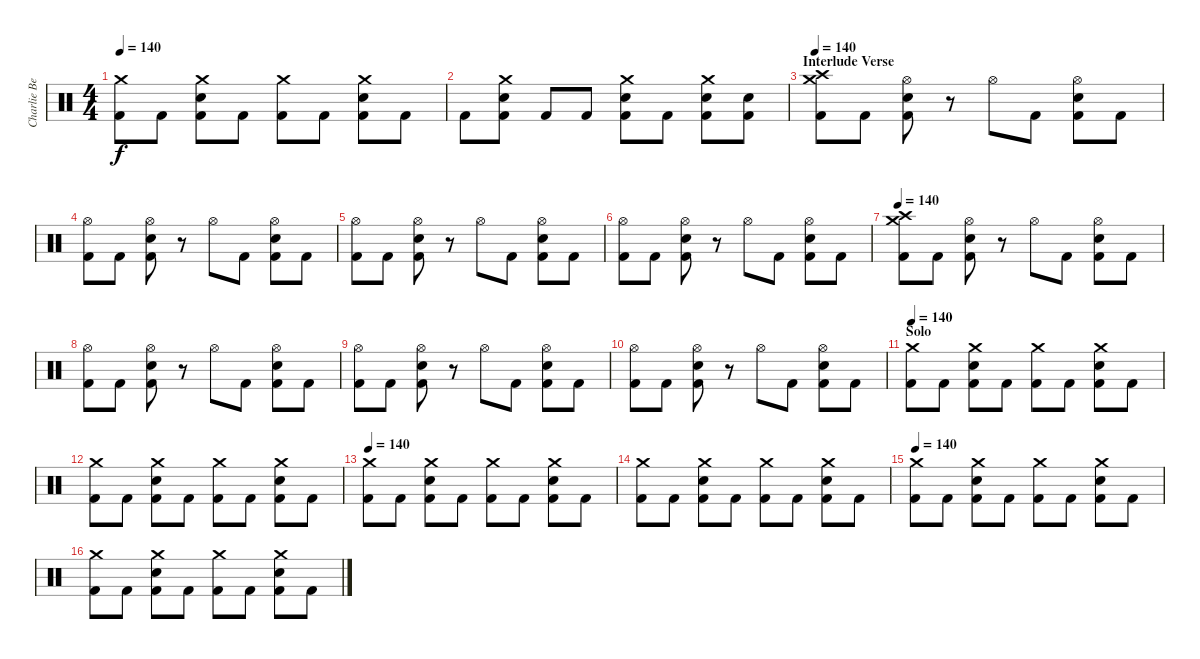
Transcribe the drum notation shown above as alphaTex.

\track ("Charlie Benante" "Charlie Be") {instrument percussion}
\staff {score}
\articulation defaults
\ts (4 4)
\tempo 140
\clef neutral
\ks c
("Crash medium (hit)" "Kick (hit) 2").8{dy f} "Kick (hit) 2".8 ("Crash medium (hit)" "Snare (hit) 2" "Kick (hit) 2").8 "Kick (hit) 2".8 ("Crash medium (hit)" "Kick (hit) 2").8 "Kick (hit) 2".8 ("Crash medium (hit)" "Snare (hit) 2" "Kick (hit) 2").8 "Kick (hit) 2".8 |
"Kick (hit) 2".8 ("Crash medium (hit)" "Snare (hit) 2" "Kick (hit) 2").8 "Kick (hit) 2".8 "Kick (hit) 2".8 ("Crash medium (hit)" "Snare (hit) 2" "Kick (hit) 2").8 "Kick (hit) 2".8 ("Crash medium (hit)" "Snare (hit) 2" "Kick (hit) 2").8 ("Snare (hit) 2" "Kick (hit) 2").8 |
\section ("" "Interlude Verse")
\tempo 140
("Crash high (hit)" "Crash medium (hit)" "Kick (hit) 2").8 "Kick (hit) 2".8 ("Hi-Hat (open)" "Snare (hit) 2" "Kick (hit) 2").8 r.8 "Hi-Hat (open)".8 "Kick (hit) 2".8 ("Hi-Hat (open)" "Snare (hit) 2" "Kick (hit) 2").8 "Kick (hit) 2".8 |
("Hi-Hat (open)" "Kick (hit) 2").8 "Kick (hit) 2".8 ("Hi-Hat (open)" "Snare (hit) 2" "Kick (hit) 2").8 r.8 "Hi-Hat (open)".8 "Kick (hit) 2".8 ("Hi-Hat (open)" "Snare (hit) 2" "Kick (hit) 2").8 "Kick (hit) 2".8 |
("Hi-Hat (open)" "Kick (hit) 2").8 "Kick (hit) 2".8 ("Hi-Hat (open)" "Snare (hit) 2" "Kick (hit) 2").8 r.8 "Hi-Hat (open)".8 "Kick (hit) 2".8 ("Hi-Hat (open)" "Snare (hit) 2" "Kick (hit) 2").8 "Kick (hit) 2".8 |
("Hi-Hat (open)" "Kick (hit) 2").8 "Kick (hit) 2".8 ("Hi-Hat (open)" "Snare (hit) 2" "Kick (hit) 2").8 r.8 "Hi-Hat (open)".8 "Kick (hit) 2".8 ("Hi-Hat (open)" "Snare (hit) 2" "Kick (hit) 2").8 "Kick (hit) 2".8 |
\tempo 140
("Crash high (hit)" "Crash medium (hit)" "Kick (hit) 2").8 "Kick (hit) 2".8 ("Hi-Hat (open)" "Snare (hit) 2" "Kick (hit) 2").8 r.8 "Hi-Hat (open)".8 "Kick (hit) 2".8 ("Hi-Hat (open)" "Snare (hit) 2" "Kick (hit) 2").8 "Kick (hit) 2".8 |
("Hi-Hat (open)" "Kick (hit) 2").8 "Kick (hit) 2".8 ("Hi-Hat (open)" "Snare (hit) 2" "Kick (hit) 2").8 r.8 "Hi-Hat (open)".8 "Kick (hit) 2".8 ("Hi-Hat (open)" "Snare (hit) 2" "Kick (hit) 2").8 "Kick (hit) 2".8 |
("Hi-Hat (open)" "Kick (hit) 2").8 "Kick (hit) 2".8 ("Hi-Hat (open)" "Snare (hit) 2" "Kick (hit) 2").8 r.8 "Hi-Hat (open)".8 "Kick (hit) 2".8 ("Hi-Hat (open)" "Snare (hit) 2" "Kick (hit) 2").8 "Kick (hit) 2".8 |
("Hi-Hat (open)" "Kick (hit) 2").8 "Kick (hit) 2".8 ("Hi-Hat (open)" "Snare (hit) 2" "Kick (hit) 2").8 r.8 "Hi-Hat (open)".8 "Kick (hit) 2".8 ("Hi-Hat (open)" "Snare (hit) 2" "Kick (hit) 2").8 "Kick (hit) 2".8 |
\section ("" "Solo")
\tempo 140
("Crash medium (hit)" "Kick (hit) 2").8 "Kick (hit) 2".8 ("Crash medium (hit)" "Snare (hit) 2" "Kick (hit) 2").8 "Kick (hit) 2".8 ("Crash medium (hit)" "Kick (hit) 2").8 "Kick (hit) 2".8 ("Crash medium (hit)" "Snare (hit) 2" "Kick (hit) 2").8 "Kick (hit) 2".8 |
("Crash medium (hit)" "Kick (hit) 2").8 "Kick (hit) 2".8 ("Crash medium (hit)" "Snare (hit) 2" "Kick (hit) 2").8 "Kick (hit) 2".8 ("Crash medium (hit)" "Kick (hit) 2").8 "Kick (hit) 2".8 ("Crash medium (hit)" "Snare (hit) 2" "Kick (hit) 2").8 "Kick (hit) 2".8 |
\tempo 140
("Crash medium (hit)" "Kick (hit) 2").8 "Kick (hit) 2".8 ("Crash medium (hit)" "Snare (hit) 2" "Kick (hit) 2").8 "Kick (hit) 2".8 ("Crash medium (hit)" "Kick (hit) 2").8 "Kick (hit) 2".8 ("Crash medium (hit)" "Snare (hit) 2" "Kick (hit) 2").8 "Kick (hit) 2".8 |
("Crash medium (hit)" "Kick (hit) 2").8 "Kick (hit) 2".8 ("Crash medium (hit)" "Snare (hit) 2" "Kick (hit) 2").8 "Kick (hit) 2".8 ("Crash medium (hit)" "Kick (hit) 2").8 "Kick (hit) 2".8 ("Crash medium (hit)" "Snare (hit) 2" "Kick (hit) 2").8 "Kick (hit) 2".8 |
\tempo 140
("Crash medium (hit)" "Kick (hit) 2").8 "Kick (hit) 2".8 ("Crash medium (hit)" "Snare (hit) 2" "Kick (hit) 2").8 "Kick (hit) 2".8 ("Crash medium (hit)" "Kick (hit) 2").8 "Kick (hit) 2".8 ("Crash medium (hit)" "Snare (hit) 2" "Kick (hit) 2").8 "Kick (hit) 2".8 |
("Crash medium (hit)" "Kick (hit) 2").8 "Kick (hit) 2".8 ("Crash medium (hit)" "Snare (hit) 2" "Kick (hit) 2").8 "Kick (hit) 2".8 ("Crash medium (hit)" "Kick (hit) 2").8 "Kick (hit) 2".8 ("Crash medium (hit)" "Snare (hit) 2" "Kick (hit) 2").8 "Kick (hit) 2".8
